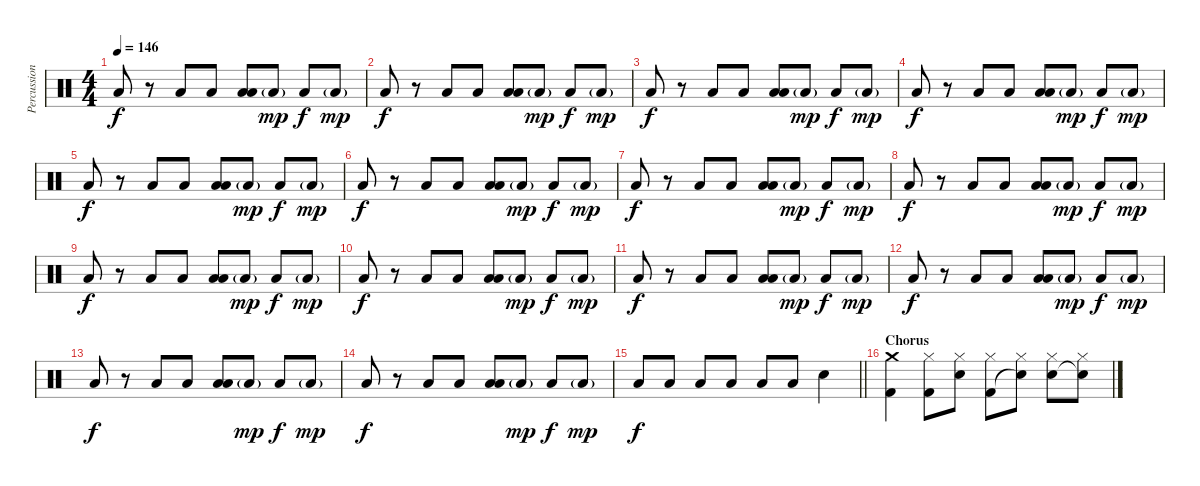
\track ("Percussion" "Percussion") {instrument percussion}
\staff {score}
\articulation defaults
\ts (4 4)
\tempo 146
\clef neutral
\ks c "Low Tom (hit)".8{dy f}
r.8 "Low Tom (hit)".8 "Low Tom (hit)".8 ("Low Tom (hit)" "Low Floor Tom (hit)").8 "Low Floor Tom (hit)"{g}.8{dy mp} "Low Floor Tom (hit)".8{dy f} "Low Tom (hit)"{g}.8{dy mp} |
"Low Tom (hit)".8{dy f} r.8 "Low Tom (hit)".8 "Low Tom (hit)".8 ("Low Tom (hit)" "Low Floor Tom (hit)").8 "Low Floor Tom (hit)"{g}.8{dy mp} "Low Floor Tom (hit)".8{dy f} "Low Tom (hit)"{g}.8{dy mp} |
"Low Tom (hit)".8{dy f} r.8 "Low Tom (hit)".8 "Low Tom (hit)".8 ("Low Tom (hit)" "Low Floor Tom (hit)").8 "Low Floor Tom (hit)"{g}.8{dy mp} "Low Floor Tom (hit)".8{dy f} "Low Tom (hit)"{g}.8{dy mp} |
"Low Tom (hit)".8{dy f} r.8 "Low Tom (hit)".8 "Low Tom (hit)".8 ("Low Tom (hit)" "Low Floor Tom (hit)").8 "Low Floor Tom (hit)"{g}.8{dy mp} "Low Floor Tom (hit)".8{dy f} "Low Tom (hit)"{g}.8{dy mp} |
"Low Tom (hit)".8{dy f} r.8 "Low Tom (hit)".8 "Low Tom (hit)".8 ("Low Tom (hit)" "Low Floor Tom (hit)").8 "Low Floor Tom (hit)"{g}.8{dy mp} "Low Floor Tom (hit)".8{dy f} "Low Tom (hit)"{g}.8{dy mp} |
"Low Tom (hit)".8{dy f} r.8 "Low Tom (hit)".8 "Low Tom (hit)".8 ("Low Tom (hit)" "Low Floor Tom (hit)").8 "Low Floor Tom (hit)"{g}.8{dy mp} "Low Floor Tom (hit)".8{dy f} "Low Tom (hit)"{g}.8{dy mp} |
"Low Tom (hit)".8{dy f} r.8 "Low Tom (hit)".8 "Low Tom (hit)".8 ("Low Tom (hit)" "Low Floor Tom (hit)").8 "Low Floor Tom (hit)"{g}.8{dy mp} "Low Floor Tom (hit)".8{dy f} "Low Tom (hit)"{g}.8{dy mp} |
"Low Tom (hit)".8{dy f} r.8 "Low Tom (hit)".8 "Low Tom (hit)".8 ("Low Tom (hit)" "Low Floor Tom (hit)").8 "Low Floor Tom (hit)"{g}.8{dy mp} "Low Floor Tom (hit)".8{dy f} "Low Tom (hit)"{g}.8{dy mp} |
"Low Tom (hit)".8{dy f} r.8 "Low Tom (hit)".8 "Low Tom (hit)".8 ("Low Tom (hit)" "Low Floor Tom (hit)").8 "Low Floor Tom (hit)"{g}.8{dy mp} "Low Floor Tom (hit)".8{dy f} "Low Tom (hit)"{g}.8{dy mp} |
"Low Tom (hit)".8{dy f} r.8 "Low Tom (hit)".8 "Low Tom (hit)".8 ("Low Tom (hit)" "Low Floor Tom (hit)").8 "Low Floor Tom (hit)"{g}.8{dy mp} "Low Floor Tom (hit)".8{dy f} "Low Tom (hit)"{g}.8{dy mp} |
"Low Tom (hit)".8{dy f} r.8 "Low Tom (hit)".8 "Low Tom (hit)".8 ("Low Tom (hit)" "Low Floor Tom (hit)").8 "Low Floor Tom (hit)"{g}.8{dy mp} "Low Floor Tom (hit)".8{dy f} "Low Tom (hit)"{g}.8{dy mp} |
"Low Tom (hit)".8{dy f} r.8 "Low Tom (hit)".8 "Low Tom (hit)".8 ("Low Tom (hit)" "Low Floor Tom (hit)").8 "Low Floor Tom (hit)"{g}.8{dy mp} "Low Floor Tom (hit)".8{dy f} "Low Tom (hit)"{g}.8{dy mp} |
"Low Tom (hit)".8{dy f} r.8 "Low Tom (hit)".8 "Low Tom (hit)".8 ("Low Tom (hit)" "Low Floor Tom (hit)").8 "Low Floor Tom (hit)"{g}.8{dy mp} "Low Floor Tom (hit)".8{dy f} "Low Tom (hit)"{g}.8{dy mp} |
"Low Tom (hit)".8{dy f} r.8 "Low Tom (hit)".8 "Low Tom (hit)".8 ("Low Tom (hit)" "Low Floor Tom (hit)").8 "Low Floor Tom (hit)"{g}.8{dy mp} "Low Floor Tom (hit)".8{dy f} "Low Tom (hit)"{g}.8{dy mp} |
\barLineRight lightlight "Low Floor Tom (hit)".8{dy f} "Low Floor Tom (hit)".8 "Low Floor Tom (hit)".8 "Low Floor Tom (hit)".8 "Low Floor Tom (hit)".8 "Low Floor Tom (hit)".8 "Snare (hit) 2".4
|
\section ("" "Chorus")
("Crash medium (hit)" "Kick (hit) 2").4 ("Hi-Hat (closed)" "Kick (hit) 2").8 ("Hi-Hat (closed)" "Snare (hit) 2").8 ("Hi-Hat (closed)" "Kick (hit) 2").8 ("Hi-Hat (closed)" "Snare (hit)"{t}).8 ("Hi-Hat (closed)" "Snare (hit) 2").8 ("Hi-Hat (closed)" "Snare (hit)"{t}).8
